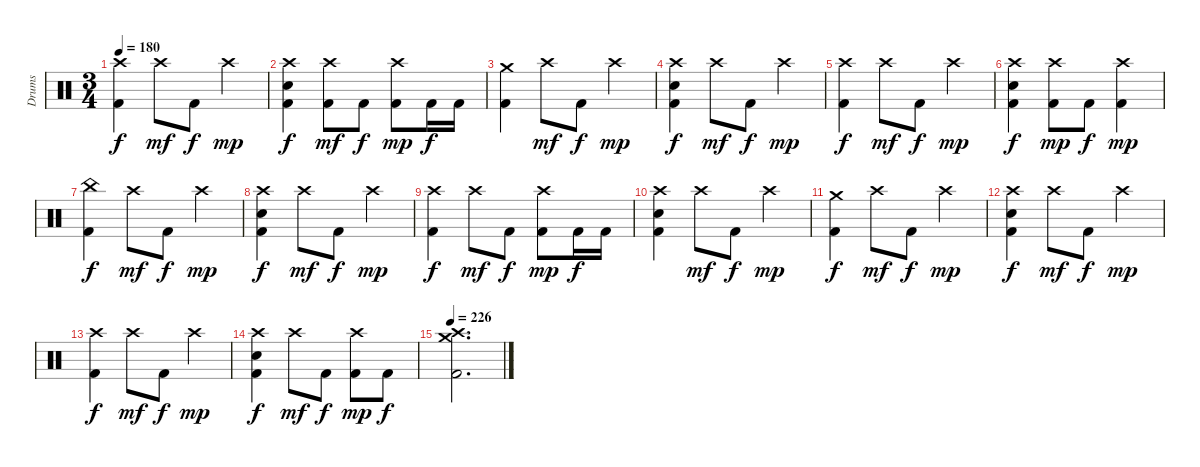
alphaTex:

\track ("Drums" "Drums") {instrument percussion}
\staff {score}
\articulation defaults
\ts (3 4)
\tempo 180
\clef neutral
\ks c
("Crash high (hit)" "Kick (hit) 2").4{dy f} "Crash high (hit)".8{dy mf} "Kick (hit) 2".8{dy f} "Crash high (hit)".4{dy mp} |
("Crash high (hit)" "Electric Snare (hit)" "Kick (hit) 2").4{dy f} ("Crash high (hit)" "Kick (hit) 2").8{dy mf} "Kick (hit) 2".8{dy f} ("Crash high (hit)" "Kick (hit) 2").8{dy mp} "Kick (hit) 2".16{dy f} "Kick (hit) 2".16 |
("Crash medium (hit)" "Kick (hit) 2").4 "Crash high (hit)".8{dy mf} "Kick (hit) 2".8{dy f} "Crash high (hit)".4{dy mp} |
("Crash high (hit)" "Electric Snare (hit)" "Kick (hit) 2").4{dy f} "Crash high (hit)".8{dy mf} "Kick (hit) 2".8{dy f} "Crash high (hit)".4{dy mp} |
("Crash high (hit)" "Kick (hit) 2").4{dy f} "Crash high (hit)".8{dy mf} "Kick (hit) 2".8{dy f} "Crash high (hit)".4{dy mp} |
("Crash high (hit)" "Electric Snare (hit)" "Kick (hit) 2").4{dy f} ("Crash high (hit)" "Kick (hit) 2").8{dy mp} "Kick (hit) 2".8{dy f} ("Crash high (hit)" "Kick (hit) 2").4{dy mp} |
("China (hit)" "Kick (hit) 2").4{dy f} "Crash high (hit)".8{dy mf} "Kick (hit) 2".8{dy f} "Crash high (hit)".4{dy mp} |
("Crash high (hit)" "Electric Snare (hit)" "Kick (hit) 2").4{dy f} "Crash high (hit)".8{dy mf} "Kick (hit) 2".8{dy f} "Crash high (hit)".4{dy mp} |
("Crash high (hit)" "Kick (hit) 2").4{dy f} "Crash high (hit)".8{dy mf} "Kick (hit) 2".8{dy f} ("Crash high (hit)" "Kick (hit) 2").8{dy mp} "Kick (hit) 2".16{dy f} "Kick (hit) 2".16 |
("Crash high (hit)" "Electric Snare (hit)" "Kick (hit) 2").4 "Crash high (hit)".8{dy mf} "Kick (hit) 2".8{dy f} "Crash high (hit)".4{dy mp} |
("Crash medium (hit)" "Kick (hit) 2").4{dy f} "Crash high (hit)".8{dy mf} "Kick (hit) 2".8{dy f} "Crash high (hit)".4{dy mp} |
("Crash high (hit)" "Electric Snare (hit)" "Kick (hit) 2").4{dy f} "Crash high (hit)".8{dy mf} "Kick (hit) 2".8{dy f} "Crash high (hit)".4{dy mp} |
("Crash high (hit)" "Kick (hit) 2").4{dy f} "Crash high (hit)".8{dy mf} "Kick (hit) 2".8{dy f} "Crash high (hit)".4{dy mp} |
("Crash high (hit)" "Electric Snare (hit)" "Kick (hit) 2").4{dy f} "Crash high (hit)".8{dy mf} "Kick (hit) 2".8{dy f} ("Crash high (hit)" "Kick (hit) 2").8{dy mp} "Kick (hit) 2".8{dy f} |
\tempo 226
("Crash high (hit)" "Crash medium (hit)" "Kick (hit) 2").2{d}
